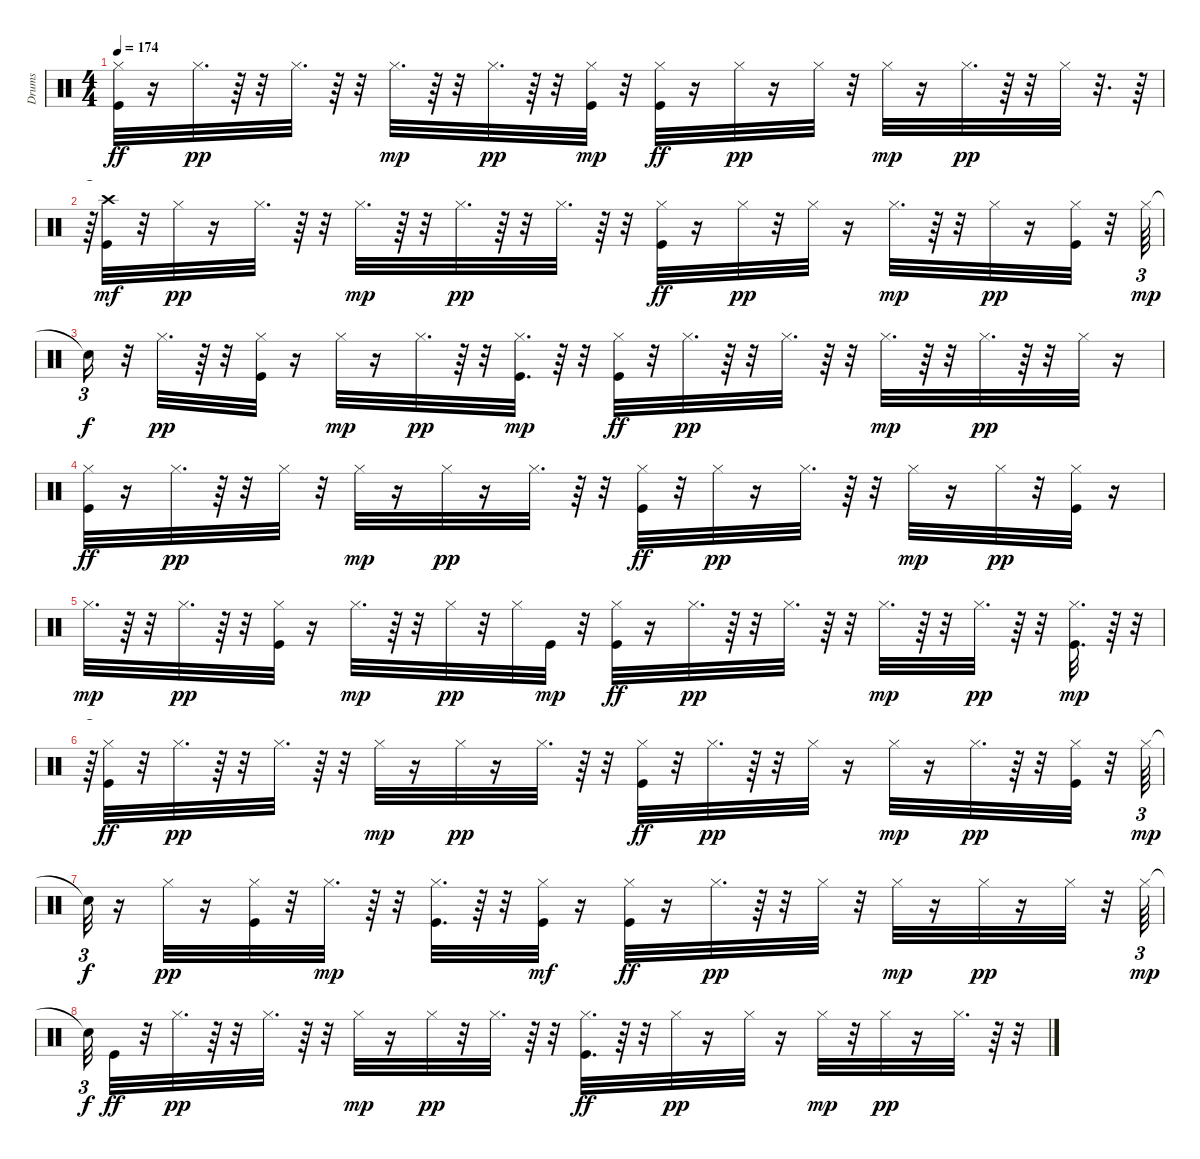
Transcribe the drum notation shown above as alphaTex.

\track ("Drums" "Drums") {instrument percussion}
\staff {score}
\articulation defaults
\ts (4 4)
\tempo 174
\clef neutral
\ks c
("Hi-Hat (closed)" "Kick (hit)").32{dy ff} r.16 "Hi-Hat (closed)".32{d dy pp} r.64 r.32 "Hi-Hat (closed)".32{d} r.64 r.32 "Hi-Hat (closed)".32{d dy mp} r.64 r.32 "Hi-Hat (closed)".32{d dy pp} r.64 r.32 ("Hi-Hat (closed)" "Kick (hit)").32{dy mp} r.32 ("Hi-Hat (closed)" "Kick (hit)").32{dy ff} r.16 "Hi-Hat (closed)".32{dy pp} r.16 "Hi-Hat (closed)".32 r.32 "Hi-Hat (closed)".32{dy mp} r.16 "Hi-Hat (closed)".32{d dy pp} r.64 r.32 "Hi-Hat (closed)".32 r.32{d} r.64 |
r.64{tu (3 2)} ("Kick (hit)" "Crash high (hit)").32{dy mf} r.32 "Hi-Hat (closed)".32{dy pp} r.16 "Hi-Hat (closed)".32{d} r.64 r.32 "Hi-Hat (closed)".32{d dy mp} r.64 r.32 "Hi-Hat (closed)".32{d dy pp} r.64 r.32 "Hi-Hat (closed)".32{d} r.64 r.32 ("Hi-Hat (closed)" "Kick (hit)").32{dy ff} r.16 "Hi-Hat (closed)".32{dy pp} r.32 "Hi-Hat (closed)".32 r.16 "Hi-Hat (closed)".32{d dy mp} r.64 r.32 "Hi-Hat (closed)".32{dy pp} r.16 ("Hi-Hat (closed)" "Kick (hit)").32 r.32 "Hi-Hat (closed)".64{tu (3 2) dy mp} |
"Snare (hit)"{t}.16{tu (3 2) dy f} r.32 "Hi-Hat (closed)".32{d dy pp} r.64 r.32 ("Hi-Hat (closed)" "Kick (hit)").32 r.16 "Hi-Hat (closed)".32{dy mp} r.16 "Hi-Hat (closed)".32{d dy pp} r.64 r.32 ("Hi-Hat (closed)" "Kick (hit)").32{d dy mp} r.64 r.32 ("Hi-Hat (closed)" "Kick (hit)").32{dy ff} r.32 "Hi-Hat (closed)".32{d dy pp} r.64 r.32 "Hi-Hat (closed)".32{d} r.64 r.32 "Hi-Hat (closed)".32{d dy mp} r.64 r.32 "Hi-Hat (closed)".32{d dy pp} r.64 r.32 "Hi-Hat (closed)".32 r.16 |
("Hi-Hat (closed)" "Kick (hit)").32{dy ff} r.16 "Hi-Hat (closed)".32{d dy pp} r.64 r.32 "Hi-Hat (closed)".32 r.32 "Hi-Hat (closed)".32{dy mp} r.16 "Hi-Hat (closed)".32{dy pp} r.16 "Hi-Hat (closed)".32{d} r.64 r.32 ("Hi-Hat (closed)" "Kick (hit)").32{dy ff} r.32 "Hi-Hat (closed)".32{dy pp} r.16 "Hi-Hat (closed)".32{d} r.64 r.32 "Hi-Hat (closed)".32{dy mp} r.16 "Hi-Hat (closed)".32{dy pp} r.32 ("Hi-Hat (closed)" "Kick (hit)").32 r.16 |
"Hi-Hat (closed)".32{d dy mp} r.64 r.32 "Hi-Hat (closed)".32{d dy pp} r.64 r.32 ("Hi-Hat (closed)" "Kick (hit)").32 r.16 "Hi-Hat (closed)".32{d dy mp} r.64 r.32 "Hi-Hat (closed)".32{dy pp} r.32 "Hi-Hat (closed)".32 "Kick (hit)".32{dy mp} r.32 ("Hi-Hat (closed)" "Kick (hit)").32{dy ff} r.16 "Hi-Hat (closed)".32{d dy pp} r.64 r.32 "Hi-Hat (closed)".32{d} r.64 r.32 "Hi-Hat (closed)".32{d dy mp} r.64 r.32 "Hi-Hat (closed)".32{d dy pp} r.64 r.32 ("Hi-Hat (closed)" "Kick (hit)").32{d dy mp} r.64 r.32{tu (3 2)} |
r.64{tu (3 2)} ("Hi-Hat (closed)" "Kick (hit)").32{dy ff} r.32 "Hi-Hat (closed)".32{d dy pp} r.64 r.32 "Hi-Hat (closed)".32{d} r.64 r.32 "Hi-Hat (closed)".32{dy mp} r.16 "Hi-Hat (closed)".32{dy pp} r.16 "Hi-Hat (closed)".32{d} r.64 r.32 ("Hi-Hat (closed)" "Kick (hit)").32{dy ff} r.32 "Hi-Hat (closed)".32{d dy pp} r.64 r.32 "Hi-Hat (closed)".32 r.16 "Hi-Hat (closed)".32{dy mp} r.16 "Hi-Hat (closed)".32{d dy pp} r.64 r.32 ("Hi-Hat (closed)" "Kick (hit)").32 r.32 "Hi-Hat (closed)".64{tu (3 2) dy mp} |
"Snare (hit)"{t}.32{tu (3 2) dy f} r.16 "Hi-Hat (closed)".32{dy pp} r.16 ("Hi-Hat (closed)" "Kick (hit)").32 r.32 "Hi-Hat (closed)".32{d dy mp} r.64 r.32 ("Hi-Hat (closed)" "Kick (hit)").32{d} r.64 r.32 ("Hi-Hat (closed)" "Kick (hit)").32{dy mf} r.16 ("Hi-Hat (closed)" "Kick (hit)").32{dy ff} r.16 "Hi-Hat (closed)".32{d dy pp} r.64 r.32 "Hi-Hat (closed)".32 r.32 "Hi-Hat (closed)".32{dy mp} r.16 "Hi-Hat (closed)".32{dy pp} r.16 "Hi-Hat (closed)".32 r.32 "Hi-Hat (closed)".64{tu (3 2) dy mp} |
"Snare (hit)"{t}.32{tu (3 2) dy f} "Kick (hit)".32{dy ff} r.32 "Hi-Hat (closed)".32{d dy pp} r.64 r.32 "Hi-Hat (closed)".32{d} r.64 r.32 "Hi-Hat (closed)".32{dy mp} r.16 "Hi-Hat (closed)".32{dy pp} r.32 "Hi-Hat (closed)".32{d} r.64 r.32 ("Hi-Hat (closed)" "Kick (hit)").32{d dy ff} r.64 r.32 "Hi-Hat (closed)".32{dy pp} r.16 "Hi-Hat (closed)".32 r.16 "Hi-Hat (closed)".32{dy mp} r.32 "Hi-Hat (closed)".32{dy pp} r.16 "Hi-Hat (closed)".32{d} r.64 r.32
